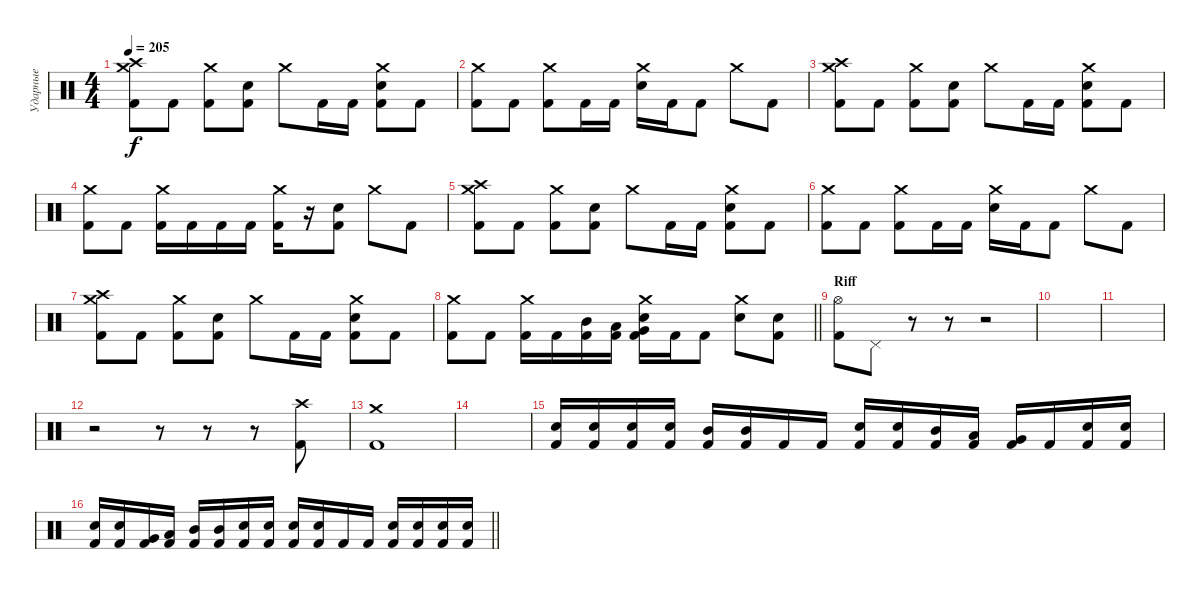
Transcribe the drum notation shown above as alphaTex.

\track ("Ударные" "Ударные") {instrument percussion}
\staff {score}
\articulation defaults
\ts (4 4)
\tempo 205
\clef neutral
\ks c
("Crash medium (hit)" "Crash high (hit)" "Kick (hit) 2").8{dy f} "Kick (hit) 2".8 ("Crash medium (hit)" "Kick (hit) 2").8 ("Snare (hit) 2" "Kick (hit) 2").8 "Crash medium (hit)".8 "Kick (hit) 2".16 "Kick (hit) 2".16 ("Crash medium (hit)" "Snare (hit) 2" "Kick (hit) 2").8 "Kick (hit) 2".8 |
("Crash medium (hit)" "Kick (hit) 2").8 "Kick (hit) 2".8 ("Crash medium (hit)" "Kick (hit) 2").8 "Kick (hit) 2".16 "Kick (hit) 2".16 ("Crash medium (hit)" "Snare (hit) 2").16 "Kick (hit) 2".16 "Kick (hit) 2".8 "Crash medium (hit)".8 "Kick (hit) 2".8 |
("Crash medium (hit)" "Crash high (hit)" "Kick (hit) 2").8 "Kick (hit) 2".8 ("Crash medium (hit)" "Kick (hit) 2").8 ("Snare (hit) 2" "Kick (hit) 2").8 "Crash medium (hit)".8 "Kick (hit) 2".16 "Kick (hit) 2".16 ("Crash medium (hit)" "Snare (hit) 2" "Kick (hit) 2").8 "Kick (hit) 2".8 |
("Crash medium (hit)" "Kick (hit) 2").8 "Kick (hit) 2".8 ("Crash medium (hit)" "Kick (hit) 2").16 "Kick (hit) 2".16 "Kick (hit) 2".16 "Kick (hit) 2".16 ("Crash medium (hit)" "Kick (hit) 2").16 r.16 ("Snare (hit) 2" "Kick (hit) 2").8 "Crash medium (hit)".8 "Kick (hit) 2".8 |
("Crash medium (hit)" "Crash high (hit)" "Kick (hit) 2").8 "Kick (hit) 2".8 ("Crash medium (hit)" "Kick (hit) 2").8 ("Snare (hit) 2" "Kick (hit) 2").8 "Crash medium (hit)".8 "Kick (hit) 2".16 "Kick (hit) 2".16 ("Crash medium (hit)" "Snare (hit) 2" "Kick (hit) 2").8 "Kick (hit) 2".8 |
("Crash medium (hit)" "Kick (hit) 2").8 "Kick (hit) 2".8 ("Crash medium (hit)" "Kick (hit) 2").8 "Kick (hit) 2".16 "Kick (hit) 2".16 ("Crash medium (hit)" "Snare (hit) 2").16 "Kick (hit) 2".16 "Kick (hit) 2".8 "Crash medium (hit)".8 "Kick (hit) 2".8 |
("Crash medium (hit)" "Crash high (hit)" "Kick (hit) 2").8 "Kick (hit) 2".8 ("Crash medium (hit)" "Kick (hit) 2").8 ("Snare (hit) 2" "Kick (hit) 2").8 "Crash medium (hit)".8 "Kick (hit) 2".16 "Kick (hit) 2".16 ("Crash medium (hit)" "Snare (hit) 2" "Kick (hit) 2").8 "Kick (hit) 2".8 |
\barLineRight lightlight
("Crash medium (hit)" "Kick (hit) 2").8 "Kick (hit) 2".8 ("Crash medium (hit)" "Kick (hit) 2").16 "Kick (hit) 2".16 ("Mid Tom (hit)" "Kick (hit) 2").16 ("Low Tom (hit)" "Kick (hit) 2").16 ("Crash medium (hit)" "Snare (hit) 2" "Very Low Tom (hit)" "Kick (hit) 2").16 "Kick (hit) 2".16 "Kick (hit) 2".8 ("Crash medium (hit)" "Snare (hit) 2").8 ("Snare (hit) 2" "Kick (hit) 2").8 |
\section ("" "Riff")
("Hi-Hat (open)" "Kick (hit) 2").8 "Pedal Hi-Hat (hit)".8 r.8 r.8 r.2 |
|
|
r.2 r.8 r.8 r.8 ("Crash high (hit)" "Kick (hit) 2").8 |
("Crash medium (hit)" "Kick (hit) 2").1 |
|
("Snare (hit) 2" "Kick (hit) 2").16 ("Snare (hit) 2" "Kick (hit) 2").16 ("Snare (hit) 2" "Kick (hit) 2").16 ("Snare (hit) 2" "Kick (hit) 2").16 ("Mid Tom (hit)" "Kick (hit) 2").16 ("Mid Tom (hit)" "Kick (hit) 2").16 "Kick (hit) 2".16 "Kick (hit) 2".16 ("Snare (hit) 2" "Kick (hit) 2").16 ("Snare (hit) 2" "Kick (hit) 2").16 ("Mid Tom (hit)" "Kick (hit) 2").16 ("Low Tom (hit)" "Kick (hit) 2").16 ("Very Low Tom (hit)" "Kick (hit) 2").16 "Kick (hit) 2".16 ("Snare (hit) 2" "Kick (hit) 2").16 ("Snare (hit) 2" "Kick (hit) 2").16 |
\barLineRight lightlight
("Snare (hit) 2" "Kick (hit) 2").16 ("Snare (hit) 2" "Kick (hit) 2").16 ("Very Low Tom (hit)" "Kick (hit) 2").16 ("Low Floor Tom (hit)" "Kick (hit) 2").16 ("Mid Tom (hit)" "Kick (hit) 2").16 ("Mid Tom (hit)" "Kick (hit) 2").16 ("Snare (hit) 2" "Kick (hit) 2").16 ("Snare (hit) 2" "Kick (hit) 2").16 ("Snare (hit) 2" "Kick (hit) 2").16 ("Snare (hit) 2" "Kick (hit) 2").16 "Kick (hit) 2".16 "Kick (hit) 2".16 ("Snare (hit) 2" "Kick (hit) 2").16 ("Snare (hit) 2" "Kick (hit) 2").16 ("Snare (hit) 2" "Kick (hit) 2").16 ("Snare (hit) 2" "Kick (hit) 2").16
